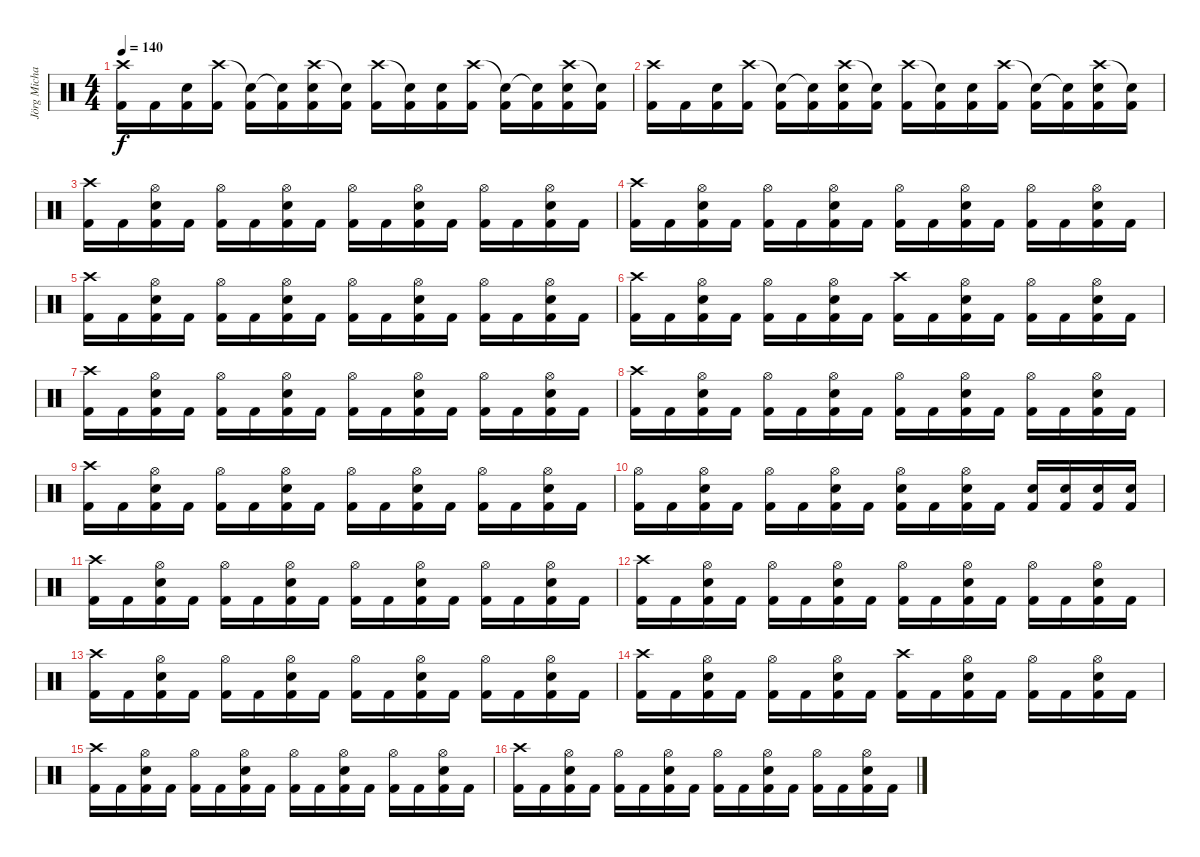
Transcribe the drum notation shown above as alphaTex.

\track ("Jörg Michael" "Jörg Micha") {instrument percussion}
\staff {score}
\articulation defaults
\ts (4 4)
\tempo 140
\clef neutral
\ks c
("Crash high (hit)" "Kick (hit) 2").16{dy f} "Kick (hit) 2".16 ("Electric Snare (hit)" "Kick (hit) 2").16 ("Crash high (hit)" "Kick (hit) 2").16 ("Snare (hit)"{t} "Kick (hit) 2").16 ("Snare (hit)"{t} "Kick (hit) 2").16 ("Crash high (hit)" "Kick (hit) 2" "Electric Snare (hit)").16 ("Snare (hit)"{t} "Kick (hit) 2").16 ("Crash high (hit)" "Kick (hit) 2").16 ("Snare (hit)"{t} "Kick (hit) 2").16 ("Electric Snare (hit)" "Kick (hit) 2").16 ("Crash high (hit)" "Kick (hit) 2").16 ("Snare (hit)"{t} "Kick (hit) 2").16 ("Snare (hit)"{t} "Kick (hit) 2").16 ("Crash high (hit)" "Kick (hit) 2" "Electric Snare (hit)").16 ("Snare (hit)"{t} "Kick (hit) 2").16 |
("Crash high (hit)" "Kick (hit) 2").16 "Kick (hit) 2".16 ("Electric Snare (hit)" "Kick (hit) 2").16 ("Crash high (hit)" "Kick (hit) 2").16 ("Snare (hit)"{t} "Kick (hit) 2").16 ("Snare (hit)"{t} "Kick (hit) 2").16 ("Crash high (hit)" "Kick (hit) 2" "Electric Snare (hit)").16 ("Snare (hit)"{t} "Kick (hit) 2").16 ("Crash high (hit)" "Kick (hit) 2").16 ("Snare (hit)"{t} "Kick (hit) 2").16 ("Electric Snare (hit)" "Kick (hit) 2").16 ("Crash high (hit)" "Kick (hit) 2").16 ("Snare (hit)"{t} "Kick (hit) 2").16 ("Snare (hit)"{t} "Kick (hit) 2").16 ("Crash high (hit)" "Kick (hit) 2" "Electric Snare (hit)").16 ("Snare (hit)"{t} "Kick (hit) 2").16 |
("Crash high (hit)" "Kick (hit) 2").16 "Kick (hit) 2".16 ("Electric Snare (hit)" "Kick (hit) 2" "Hi-Hat (open)").16 "Kick (hit) 2".16 ("Kick (hit) 2" "Hi-Hat (open)").16 "Kick (hit) 2".16 ("Electric Snare (hit)" "Kick (hit) 2" "Hi-Hat (open)").16 "Kick (hit) 2".16 ("Kick (hit) 2" "Hi-Hat (open)").16 "Kick (hit) 2".16 ("Electric Snare (hit)" "Kick (hit) 2" "Hi-Hat (open)").16 "Kick (hit) 2".16 ("Kick (hit) 2" "Hi-Hat (open)").16 "Kick (hit) 2".16 ("Electric Snare (hit)" "Kick (hit) 2" "Hi-Hat (open)").16 "Kick (hit) 2".16 |
("Crash high (hit)" "Kick (hit) 2").16 "Kick (hit) 2".16 ("Electric Snare (hit)" "Kick (hit) 2" "Hi-Hat (open)").16 "Kick (hit) 2".16 ("Kick (hit) 2" "Hi-Hat (open)").16 "Kick (hit) 2".16 ("Electric Snare (hit)" "Kick (hit) 2" "Hi-Hat (open)").16 "Kick (hit) 2".16 ("Kick (hit) 2" "Hi-Hat (open)").16 "Kick (hit) 2".16 ("Electric Snare (hit)" "Kick (hit) 2" "Hi-Hat (open)").16 "Kick (hit) 2".16 ("Kick (hit) 2" "Hi-Hat (open)").16 "Kick (hit) 2".16 ("Electric Snare (hit)" "Kick (hit) 2" "Hi-Hat (open)").16 "Kick (hit) 2".16 |
("Crash high (hit)" "Kick (hit) 2").16 "Kick (hit) 2".16 ("Electric Snare (hit)" "Kick (hit) 2" "Hi-Hat (open)").16 "Kick (hit) 2".16 ("Kick (hit) 2" "Hi-Hat (open)").16 "Kick (hit) 2".16 ("Electric Snare (hit)" "Kick (hit) 2" "Hi-Hat (open)").16 "Kick (hit) 2".16 ("Kick (hit) 2" "Hi-Hat (open)").16 "Kick (hit) 2".16 ("Electric Snare (hit)" "Kick (hit) 2" "Hi-Hat (open)").16 "Kick (hit) 2".16 ("Kick (hit) 2" "Hi-Hat (open)").16 "Kick (hit) 2".16 ("Electric Snare (hit)" "Kick (hit) 2" "Hi-Hat (open)").16 "Kick (hit) 2".16 |
("Crash high (hit)" "Kick (hit) 2").16 "Kick (hit) 2".16 ("Electric Snare (hit)" "Kick (hit) 2" "Hi-Hat (open)").16 "Kick (hit) 2".16 ("Kick (hit) 2" "Hi-Hat (open)").16 "Kick (hit) 2".16 ("Electric Snare (hit)" "Kick (hit) 2" "Hi-Hat (open)").16 "Kick (hit) 2".16 ("Kick (hit) 2" "Crash high (hit)").16 "Kick (hit) 2".16 ("Electric Snare (hit)" "Kick (hit) 2" "Hi-Hat (open)").16 "Kick (hit) 2".16 ("Kick (hit) 2" "Hi-Hat (open)").16 "Kick (hit) 2".16 ("Electric Snare (hit)" "Kick (hit) 2" "Hi-Hat (open)").16 "Kick (hit) 2".16 |
("Crash high (hit)" "Kick (hit) 2").16 "Kick (hit) 2".16 ("Electric Snare (hit)" "Kick (hit) 2" "Hi-Hat (open)").16 "Kick (hit) 2".16 ("Kick (hit) 2" "Hi-Hat (open)").16 "Kick (hit) 2".16 ("Electric Snare (hit)" "Kick (hit) 2" "Hi-Hat (open)").16 "Kick (hit) 2".16 ("Kick (hit) 2" "Hi-Hat (open)").16 "Kick (hit) 2".16 ("Electric Snare (hit)" "Kick (hit) 2" "Hi-Hat (open)").16 "Kick (hit) 2".16 ("Kick (hit) 2" "Hi-Hat (open)").16 "Kick (hit) 2".16 ("Electric Snare (hit)" "Kick (hit) 2" "Hi-Hat (open)").16 "Kick (hit) 2".16 |
("Crash high (hit)" "Kick (hit) 2").16 "Kick (hit) 2".16 ("Electric Snare (hit)" "Kick (hit) 2" "Hi-Hat (open)").16 "Kick (hit) 2".16 ("Kick (hit) 2" "Hi-Hat (open)").16 "Kick (hit) 2".16 ("Electric Snare (hit)" "Kick (hit) 2" "Hi-Hat (open)").16 "Kick (hit) 2".16 ("Kick (hit) 2" "Hi-Hat (open)").16 "Kick (hit) 2".16 ("Electric Snare (hit)" "Kick (hit) 2" "Hi-Hat (open)").16 "Kick (hit) 2".16 ("Kick (hit) 2" "Hi-Hat (open)").16 "Kick (hit) 2".16 ("Electric Snare (hit)" "Kick (hit) 2" "Hi-Hat (open)").16 "Kick (hit) 2".16 |
("Crash high (hit)" "Kick (hit) 2").16 "Kick (hit) 2".16 ("Electric Snare (hit)" "Kick (hit) 2" "Hi-Hat (open)").16 "Kick (hit) 2".16 ("Kick (hit) 2" "Hi-Hat (open)").16 "Kick (hit) 2".16 ("Electric Snare (hit)" "Kick (hit) 2" "Hi-Hat (open)").16 "Kick (hit) 2".16 ("Kick (hit) 2" "Hi-Hat (open)").16 "Kick (hit) 2".16 ("Electric Snare (hit)" "Kick (hit) 2" "Hi-Hat (open)").16 "Kick (hit) 2".16 ("Kick (hit) 2" "Hi-Hat (open)").16 "Kick (hit) 2".16 ("Electric Snare (hit)" "Kick (hit) 2" "Hi-Hat (open)").16 "Kick (hit) 2".16 |
("Hi-Hat (open)" "Kick (hit) 2").16 "Kick (hit) 2".16 ("Electric Snare (hit)" "Kick (hit) 2" "Hi-Hat (open)").16 "Kick (hit) 2".16 ("Kick (hit) 2" "Hi-Hat (open)").16 "Kick (hit) 2".16 ("Electric Snare (hit)" "Kick (hit) 2" "Hi-Hat (open)").16 "Kick (hit) 2".16 ("Electric Snare (hit)" "Kick (hit) 2" "Hi-Hat (open)").16 "Kick (hit) 2".16 ("Electric Snare (hit)" "Kick (hit) 2" "Hi-Hat (open)").16 "Kick (hit) 2".16 ("Kick (hit) 2" "Electric Snare (hit)").16 ("Kick (hit) 2" "Electric Snare (hit)").16 ("Kick (hit) 2" "Electric Snare (hit)").16 ("Kick (hit) 2" "Electric Snare (hit)").16 |
("Crash high (hit)" "Kick (hit) 2").16 "Kick (hit) 2".16 ("Electric Snare (hit)" "Kick (hit) 2" "Hi-Hat (open)").16 "Kick (hit) 2".16 ("Kick (hit) 2" "Hi-Hat (open)").16 "Kick (hit) 2".16 ("Electric Snare (hit)" "Kick (hit) 2" "Hi-Hat (open)").16 "Kick (hit) 2".16 ("Kick (hit) 2" "Hi-Hat (open)").16 "Kick (hit) 2".16 ("Electric Snare (hit)" "Kick (hit) 2" "Hi-Hat (open)").16 "Kick (hit) 2".16 ("Kick (hit) 2" "Hi-Hat (open)").16 "Kick (hit) 2".16 ("Electric Snare (hit)" "Kick (hit) 2" "Hi-Hat (open)").16 "Kick (hit) 2".16 |
("Crash high (hit)" "Kick (hit) 2").16 "Kick (hit) 2".16 ("Electric Snare (hit)" "Kick (hit) 2" "Hi-Hat (open)").16 "Kick (hit) 2".16 ("Kick (hit) 2" "Hi-Hat (open)").16 "Kick (hit) 2".16 ("Electric Snare (hit)" "Kick (hit) 2" "Hi-Hat (open)").16 "Kick (hit) 2".16 ("Kick (hit) 2" "Hi-Hat (open)").16 "Kick (hit) 2".16 ("Electric Snare (hit)" "Kick (hit) 2" "Hi-Hat (open)").16 "Kick (hit) 2".16 ("Kick (hit) 2" "Hi-Hat (open)").16 "Kick (hit) 2".16 ("Electric Snare (hit)" "Kick (hit) 2" "Hi-Hat (open)").16 "Kick (hit) 2".16 |
("Crash high (hit)" "Kick (hit) 2").16 "Kick (hit) 2".16 ("Electric Snare (hit)" "Kick (hit) 2" "Hi-Hat (open)").16 "Kick (hit) 2".16 ("Kick (hit) 2" "Hi-Hat (open)").16 "Kick (hit) 2".16 ("Electric Snare (hit)" "Kick (hit) 2" "Hi-Hat (open)").16 "Kick (hit) 2".16 ("Kick (hit) 2" "Hi-Hat (open)").16 "Kick (hit) 2".16 ("Electric Snare (hit)" "Kick (hit) 2" "Hi-Hat (open)").16 "Kick (hit) 2".16 ("Kick (hit) 2" "Hi-Hat (open)").16 "Kick (hit) 2".16 ("Electric Snare (hit)" "Kick (hit) 2" "Hi-Hat (open)").16 "Kick (hit) 2".16 |
("Crash high (hit)" "Kick (hit) 2").16 "Kick (hit) 2".16 ("Electric Snare (hit)" "Kick (hit) 2" "Hi-Hat (open)").16 "Kick (hit) 2".16 ("Kick (hit) 2" "Hi-Hat (open)").16 "Kick (hit) 2".16 ("Electric Snare (hit)" "Kick (hit) 2" "Hi-Hat (open)").16 "Kick (hit) 2".16 ("Kick (hit) 2" "Crash high (hit)").16 "Kick (hit) 2".16 ("Electric Snare (hit)" "Kick (hit) 2" "Hi-Hat (open)").16 "Kick (hit) 2".16 ("Kick (hit) 2" "Hi-Hat (open)").16 "Kick (hit) 2".16 ("Electric Snare (hit)" "Kick (hit) 2" "Hi-Hat (open)").16 "Kick (hit) 2".16 |
("Crash high (hit)" "Kick (hit) 2").16 "Kick (hit) 2".16 ("Electric Snare (hit)" "Kick (hit) 2" "Hi-Hat (open)").16 "Kick (hit) 2".16 ("Kick (hit) 2" "Hi-Hat (open)").16 "Kick (hit) 2".16 ("Electric Snare (hit)" "Kick (hit) 2" "Hi-Hat (open)").16 "Kick (hit) 2".16 ("Kick (hit) 2" "Hi-Hat (open)").16 "Kick (hit) 2".16 ("Electric Snare (hit)" "Kick (hit) 2" "Hi-Hat (open)").16 "Kick (hit) 2".16 ("Kick (hit) 2" "Hi-Hat (open)").16 "Kick (hit) 2".16 ("Electric Snare (hit)" "Kick (hit) 2" "Hi-Hat (open)").16 "Kick (hit) 2".16 |
("Crash high (hit)" "Kick (hit) 2").16 "Kick (hit) 2".16 ("Electric Snare (hit)" "Kick (hit) 2" "Hi-Hat (open)").16 "Kick (hit) 2".16 ("Kick (hit) 2" "Hi-Hat (open)").16 "Kick (hit) 2".16 ("Electric Snare (hit)" "Kick (hit) 2" "Hi-Hat (open)").16 "Kick (hit) 2".16 ("Kick (hit) 2" "Hi-Hat (open)").16 "Kick (hit) 2".16 ("Electric Snare (hit)" "Kick (hit) 2" "Hi-Hat (open)").16 "Kick (hit) 2".16 ("Kick (hit) 2" "Hi-Hat (open)").16 "Kick (hit) 2".16 ("Electric Snare (hit)" "Kick (hit) 2" "Hi-Hat (open)").16 "Kick (hit) 2".16
